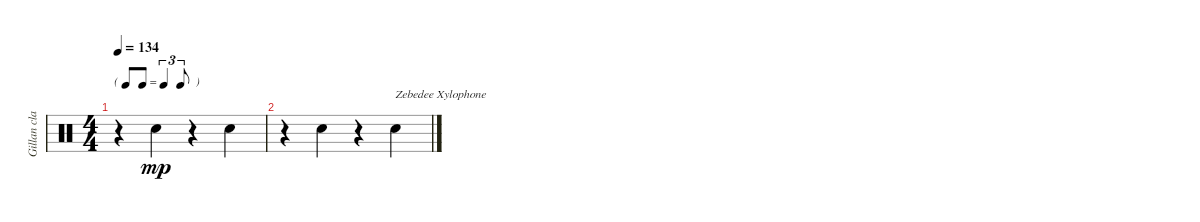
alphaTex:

\track ("Gillan claps along" "Gillan cla") {instrument percussion}
\staff {score}
\articulation defaults
\ts (4 4)
\tf triplet8th
\tempo 134
\clef neutral
\ks c
r.4{dy mp} "Hand Clap (hit)".4 r.4 "Hand Clap (hit)".4 |
r.4 "Hand Clap (hit)".4 r.4 "Hand Clap (hit)".4{txt "Zebedee Xylophone"}
